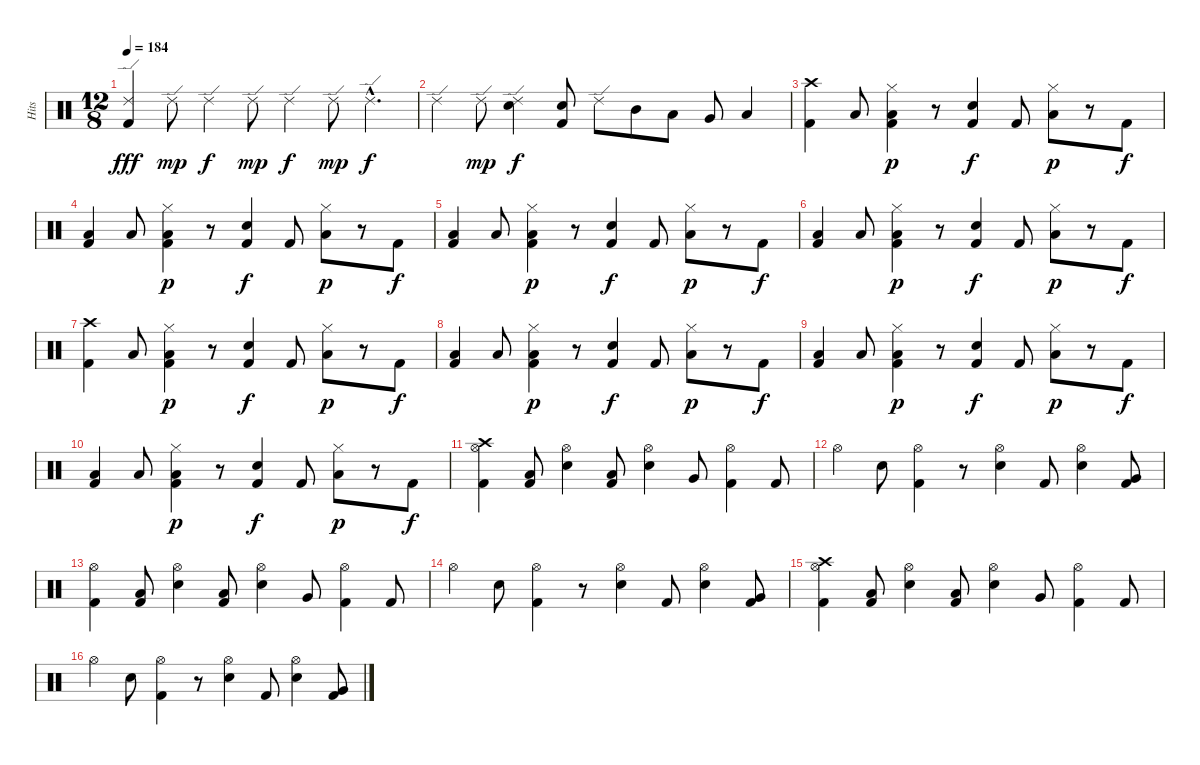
\track ("Hits" "Hits") {instrument percussion}
\staff {score}
\articulation defaults
\ts (12 8)
\tempo 184
\clef neutral
\ks c
("Ride (edge) 2" "Kick (hit) 2").4{dy fff} "Ride (edge) 2".8{dy mp} "Ride (edge) 2".4{dy f} "Ride (edge) 2".8{dy mp} "Ride (edge) 2".4{dy f} "Ride (edge) 2".8{dy mp} "Ride (edge) 2"{hac}.4{d dy f} |
"Ride (edge) 2".4 "Ride (edge) 2".8{dy mp} ("Ride (edge) 2" "Electric Snare (hit)").4{dy f} ("Electric Snare (hit)" "Kick (hit) 2").8 "Ride (edge) 2".8 "Mid Tom (hit)".8 "Low Tom (hit)".8 "Very Low Tom (hit)".8 "Low Floor Tom (hit)".4 |
("Crash high (hit)" "Kick (hit) 2").4 "Low Tom (hit)".8 ("Hi-Hat (closed)" "Low Floor Tom (hit)" "Kick (hit) 2").4{dy p} r.8 ("Electric Snare (hit)" "Kick (hit) 2").4{dy f} "Kick (hit) 2".8 ("Hi-Hat (closed)" "Low Floor Tom (hit)").8{dy p} r.8 "Kick (hit) 2".8{dy f} |
("Low Floor Tom (hit)" "Kick (hit) 2").4 "Low Tom (hit)".8 ("Hi-Hat (closed)" "Low Floor Tom (hit)" "Kick (hit) 2").4{dy p} r.8 ("Electric Snare (hit)" "Kick (hit) 2").4{dy f} "Kick (hit) 2".8 ("Hi-Hat (closed)" "Low Floor Tom (hit)").8{dy p} r.8 "Kick (hit) 2".8{dy f} |
("Low Floor Tom (hit)" "Kick (hit) 2").4 "Low Tom (hit)".8 ("Hi-Hat (closed)" "Low Floor Tom (hit)" "Kick (hit) 2").4{dy p} r.8 ("Electric Snare (hit)" "Kick (hit) 2").4{dy f} "Kick (hit) 2".8 ("Hi-Hat (closed)" "Low Floor Tom (hit)").8{dy p} r.8 "Kick (hit) 2".8{dy f} |
("Low Floor Tom (hit)" "Kick (hit) 2").4 "Low Tom (hit)".8 ("Hi-Hat (closed)" "Low Floor Tom (hit)" "Kick (hit) 2").4{dy p} r.8 ("Electric Snare (hit)" "Kick (hit) 2").4{dy f} "Kick (hit) 2".8 ("Hi-Hat (closed)" "Low Floor Tom (hit)").8{dy p} r.8 "Kick (hit) 2".8{dy f} |
("Crash high (hit)" "Kick (hit) 2").4 "Low Tom (hit)".8 ("Hi-Hat (closed)" "Low Floor Tom (hit)" "Kick (hit) 2").4{dy p} r.8 ("Electric Snare (hit)" "Kick (hit) 2").4{dy f} "Kick (hit) 2".8 ("Hi-Hat (closed)" "Low Floor Tom (hit)").8{dy p} r.8 "Kick (hit) 2".8{dy f} |
("Low Floor Tom (hit)" "Kick (hit) 2").4 "Low Tom (hit)".8 ("Hi-Hat (closed)" "Low Floor Tom (hit)" "Kick (hit) 2").4{dy p} r.8 ("Electric Snare (hit)" "Kick (hit) 2").4{dy f} "Kick (hit) 2".8 ("Hi-Hat (closed)" "Low Floor Tom (hit)").8{dy p} r.8 "Kick (hit) 2".8{dy f} |
("Low Floor Tom (hit)" "Kick (hit) 2").4 "Low Tom (hit)".8 ("Hi-Hat (closed)" "Low Floor Tom (hit)" "Kick (hit) 2").4{dy p} r.8 ("Electric Snare (hit)" "Kick (hit) 2").4{dy f} "Kick (hit) 2".8 ("Hi-Hat (closed)" "Low Floor Tom (hit)").8{dy p} r.8 "Kick (hit) 2".8{dy f} |
("Low Floor Tom (hit)" "Kick (hit) 2").4 "Low Tom (hit)".8 ("Hi-Hat (closed)" "Low Floor Tom (hit)" "Kick (hit) 2").4{dy p} r.8 ("Electric Snare (hit)" "Kick (hit) 2").4{dy f} "Kick (hit) 2".8 ("Hi-Hat (closed)" "Low Floor Tom (hit)").8{dy p} r.8 "Kick (hit) 2".8{dy f} |
("Crash high (hit)" "Hi-Hat (open)" "Kick (hit) 2").4 ("Low Tom (hit)" "Kick (hit) 2").8 ("Hi-Hat (open)" "Electric Snare (hit)").4 ("Low Tom (hit)" "Kick (hit) 2").8 ("Hi-Hat (open)" "Electric Snare (hit)").4 "Very Low Tom (hit)".8 ("Hi-Hat (open)" "Kick (hit) 2").4 "Kick (hit) 2".8 |
"Hi-Hat (open)".4 "Electric Snare (hit)".8 ("Hi-Hat (open)" "Kick (hit) 2").4 r.8 ("Hi-Hat (open)" "Electric Snare (hit)").4 "Kick (hit) 2".8 ("Hi-Hat (open)" "Electric Snare (hit)").4 ("Very Low Tom (hit)" "Kick (hit) 2").8 |
("Hi-Hat (open)" "Kick (hit) 2").4 ("Low Tom (hit)" "Kick (hit) 2").8 ("Hi-Hat (open)" "Electric Snare (hit)").4 ("Low Tom (hit)" "Kick (hit) 2").8 ("Hi-Hat (open)" "Electric Snare (hit)").4 "Very Low Tom (hit)".8 ("Hi-Hat (open)" "Kick (hit) 2").4 "Kick (hit) 2".8 |
"Hi-Hat (open)".4 "Electric Snare (hit)".8 ("Hi-Hat (open)" "Kick (hit) 2").4 r.8 ("Hi-Hat (open)" "Electric Snare (hit)").4 "Kick (hit) 2".8 ("Hi-Hat (open)" "Electric Snare (hit)").4 ("Very Low Tom (hit)" "Kick (hit) 2").8 |
("Crash high (hit)" "Hi-Hat (open)" "Kick (hit) 2").4 ("Low Tom (hit)" "Kick (hit) 2").8 ("Hi-Hat (open)" "Electric Snare (hit)").4 ("Low Tom (hit)" "Kick (hit) 2").8 ("Hi-Hat (open)" "Electric Snare (hit)").4 "Very Low Tom (hit)".8 ("Hi-Hat (open)" "Kick (hit) 2").4 "Kick (hit) 2".8 |
"Hi-Hat (open)".4 "Electric Snare (hit)".8 ("Hi-Hat (open)" "Kick (hit) 2").4 r.8 ("Hi-Hat (open)" "Electric Snare (hit)").4 "Kick (hit) 2".8 ("Hi-Hat (open)" "Electric Snare (hit)").4 ("Very Low Tom (hit)" "Kick (hit) 2").8
